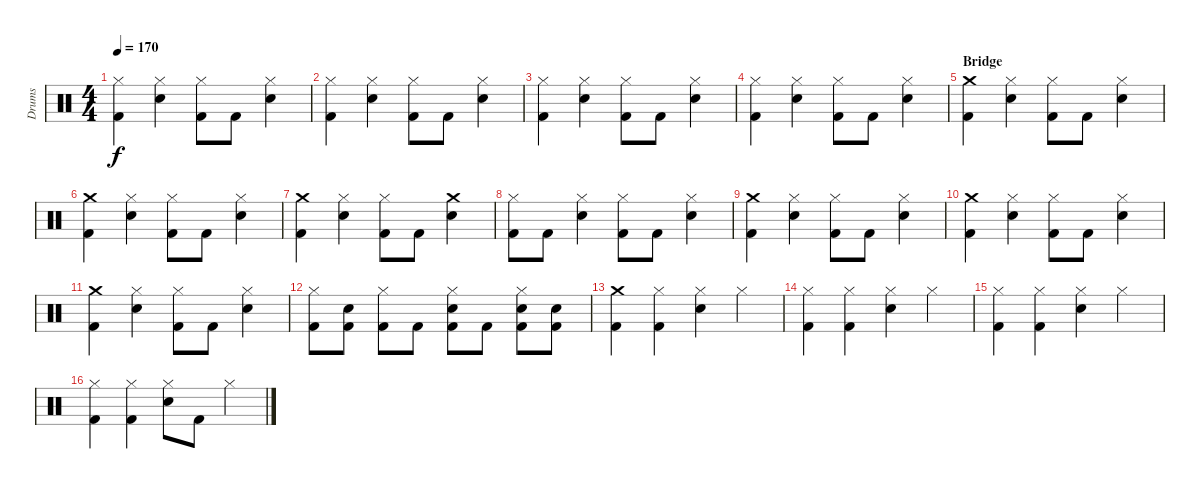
\track ("Drums" "Drums") {instrument percussion}
\staff {score}
\articulation defaults
\ts (4 4)
\tempo 170
\clef neutral
\ks c
("Hi-Hat (closed)" "Kick (hit) 2").4{dy f} ("Hi-Hat (closed)" "Electric Snare (hit)").4 ("Hi-Hat (closed)" "Kick (hit) 2").8 "Kick (hit) 2".8 ("Hi-Hat (closed)" "Electric Snare (hit)").4 |
("Hi-Hat (closed)" "Kick (hit) 2").4 ("Hi-Hat (closed)" "Electric Snare (hit)").4 ("Hi-Hat (closed)" "Kick (hit) 2").8 "Kick (hit) 2".8 ("Hi-Hat (closed)" "Electric Snare (hit)").4 |
("Hi-Hat (closed)" "Kick (hit) 2").4 ("Hi-Hat (closed)" "Electric Snare (hit)").4 ("Hi-Hat (closed)" "Kick (hit) 2").8 "Kick (hit) 2".8 ("Hi-Hat (closed)" "Electric Snare (hit)").4 |
("Hi-Hat (closed)" "Kick (hit) 2").4 ("Hi-Hat (closed)" "Electric Snare (hit)").4 ("Hi-Hat (closed)" "Kick (hit) 2").8 "Kick (hit) 2".8 ("Hi-Hat (closed)" "Electric Snare (hit)").4 |
\section ("" "Bridge")
("Crash medium (hit)" "Kick (hit) 2").4 ("Hi-Hat (closed)" "Electric Snare (hit)").4 ("Hi-Hat (closed)" "Kick (hit) 2").8 "Kick (hit) 2".8 ("Hi-Hat (closed)" "Electric Snare (hit)").4 |
("Crash medium (hit)" "Kick (hit) 2").4 ("Hi-Hat (closed)" "Electric Snare (hit)").4 ("Hi-Hat (closed)" "Kick (hit) 2").8 "Kick (hit) 2".8 ("Hi-Hat (closed)" "Electric Snare (hit)").4 |
("Crash medium (hit)" "Kick (hit) 2").4 ("Hi-Hat (closed)" "Electric Snare (hit)").4 ("Hi-Hat (closed)" "Kick (hit) 2").8 "Kick (hit) 2".8 ("Crash medium (hit)" "Electric Snare (hit)").4 |
("Hi-Hat (closed)" "Kick (hit) 2").8 "Kick (hit) 2".8 ("Hi-Hat (closed)" "Electric Snare (hit)").4 ("Hi-Hat (closed)" "Kick (hit) 2").8 "Kick (hit) 2".8 ("Hi-Hat (closed)" "Electric Snare (hit)").4 |
("Crash medium (hit)" "Kick (hit) 2").4 ("Hi-Hat (closed)" "Electric Snare (hit)").4 ("Hi-Hat (closed)" "Kick (hit) 2").8 "Kick (hit) 2".8 ("Hi-Hat (closed)" "Electric Snare (hit)").4 |
("Crash medium (hit)" "Kick (hit) 2").4 ("Hi-Hat (closed)" "Electric Snare (hit)").4 ("Hi-Hat (closed)" "Kick (hit) 2").8 "Kick (hit) 2".8 ("Hi-Hat (closed)" "Electric Snare (hit)").4 |
("Crash medium (hit)" "Kick (hit) 2").4 ("Hi-Hat (closed)" "Electric Snare (hit)").4 ("Hi-Hat (closed)" "Kick (hit) 2").8 "Kick (hit) 2".8 ("Hi-Hat (closed)" "Electric Snare (hit)").4 |
("Hi-Hat (closed)" "Kick (hit) 2").8 ("Electric Snare (hit)" "Kick (hit) 2").8 ("Hi-Hat (closed)" "Kick (hit) 2").8 "Kick (hit) 2".8 ("Hi-Hat (closed)" "Electric Snare (hit)" "Kick (hit) 2").8 "Kick (hit) 2".8 ("Hi-Hat (closed)" "Electric Snare (hit)" "Kick (hit) 2").8 ("Electric Snare (hit)" "Kick (hit) 2").8 |
("Crash medium (hit)" "Kick (hit) 2").4 ("Hi-Hat (closed)" "Kick (hit) 2").4 ("Hi-Hat (closed)" "Electric Snare (hit)").4 "Hi-Hat (closed)".4 |
("Hi-Hat (closed)" "Kick (hit) 2").4 ("Hi-Hat (closed)" "Kick (hit) 2").4 ("Hi-Hat (closed)" "Electric Snare (hit)").4 "Hi-Hat (closed)".4 |
("Hi-Hat (closed)" "Kick (hit) 2").4 ("Hi-Hat (closed)" "Kick (hit) 2").4 ("Hi-Hat (closed)" "Electric Snare (hit)").4 "Hi-Hat (closed)".4 |
("Hi-Hat (closed)" "Kick (hit) 2").4 ("Hi-Hat (closed)" "Kick (hit) 2").4 ("Hi-Hat (closed)" "Electric Snare (hit)").8 "Kick (hit) 2".8 "Hi-Hat (closed)".4
